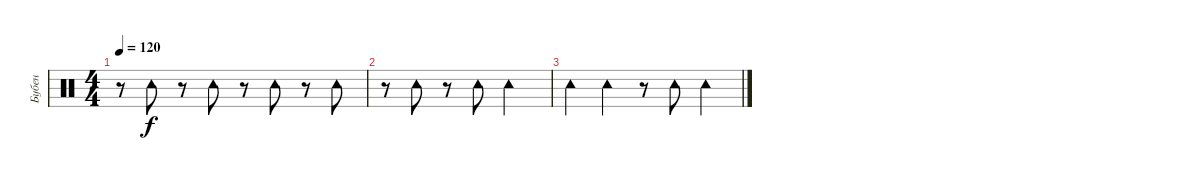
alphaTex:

\track ("Бубен" "Бубен") {instrument percussion}
\staff {score}
\articulation defaults
\ts (4 4)
\tempo 120
\clef neutral
\ks c
r.8{dy f} "Tambourine (hit)".8 r.8 "Tambourine (hit)".8 r.8 "Tambourine (hit)".8 r.8 "Tambourine (hit)".8 |
r.8 "Tambourine (hit)".8 r.8 "Tambourine (hit)".8 "Tambourine (hit)".2 |
"Tambourine (hit)".4 "Tambourine (hit)".4 r.8 "Tambourine (hit)".8 "Tambourine (hit)".4
